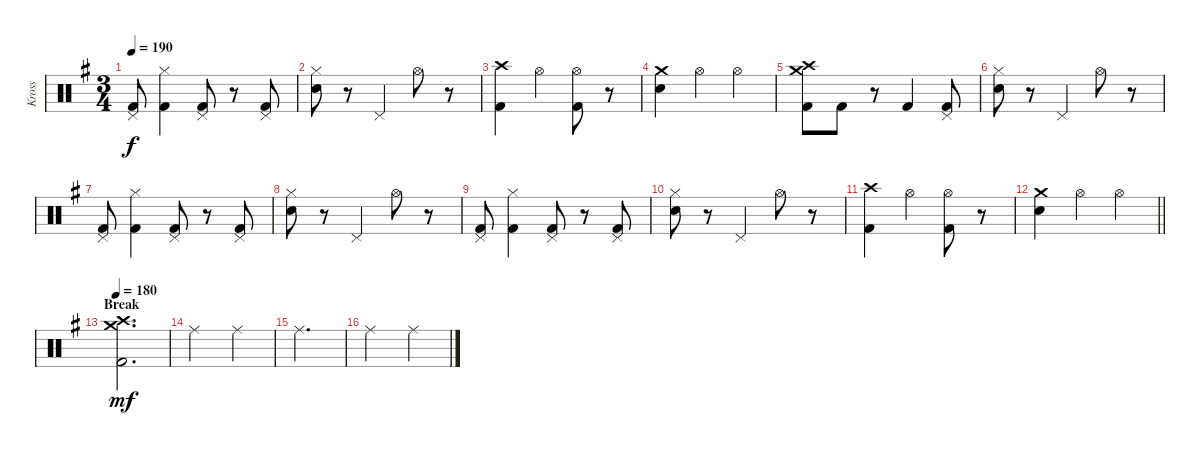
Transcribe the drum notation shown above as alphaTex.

\track ("Kross" "Kross") {instrument percussion}
\staff {score}
\articulation defaults
\ts (3 4)
\tempo 190
\clef neutral
\ks g
("Pedal Hi-Hat (hit)" "Kick (hit) 2").8{dy f} ("Hi-Hat (closed)" "Kick (hit) 2").4 ("Pedal Hi-Hat (hit)" "Kick (hit) 2").8 r.8 ("Pedal Hi-Hat (hit)" "Kick (hit) 2").8 |
("Hi-Hat (closed)" "Snare (hit) 2").8 r.8 "Pedal Hi-Hat (hit)".4 "Hi-Hat (open)".8 r.8 |
("Crash high (hit)" "Kick (hit) 2").4 "Hi-Hat (open)".4 ("Hi-Hat (open)" "Kick (hit) 2").8 r.8 |
("Crash medium (hit)" "Snare (hit) 2").4 "Hi-Hat (open)".4 "Hi-Hat (open)".4 |
("Crash medium (hit)" "Crash high (hit)" "Kick (hit) 2").8 "Kick (hit) 2".8 r.8 "Kick (hit) 2".4 ("Pedal Hi-Hat (hit)" "Kick (hit) 2").8 |
("Hi-Hat (closed)" "Snare (hit) 2").8 r.8 "Pedal Hi-Hat (hit)".4 "Hi-Hat (open)".8 r.8 |
("Pedal Hi-Hat (hit)" "Kick (hit) 2").8 ("Hi-Hat (closed)" "Kick (hit) 2").4 ("Pedal Hi-Hat (hit)" "Kick (hit) 2").8 r.8 ("Pedal Hi-Hat (hit)" "Kick (hit) 2").8 |
("Hi-Hat (closed)" "Snare (hit) 2").8 r.8 "Pedal Hi-Hat (hit)".4 "Hi-Hat (open)".8 r.8 |
("Pedal Hi-Hat (hit)" "Kick (hit) 2").8 ("Hi-Hat (closed)" "Kick (hit) 2").4 ("Pedal Hi-Hat (hit)" "Kick (hit) 2").8 r.8 ("Pedal Hi-Hat (hit)" "Kick (hit) 2").8 |
("Hi-Hat (closed)" "Snare (hit) 2").8 r.8 "Pedal Hi-Hat (hit)".4 "Hi-Hat (open)".8 r.8 |
("Crash high (hit)" "Kick (hit) 2").4 "Hi-Hat (open)".4 ("Hi-Hat (open)" "Kick (hit) 2").8 r.8 |
\barLineRight lightlight
("Crash medium (hit)" "Snare (hit) 2").4 "Hi-Hat (open)".4 "Hi-Hat (open)".4 |
\section ("" "Break")
\tempo 180
("Crash medium (hit)" "Crash high (hit)" "Kick (hit) 2").2{d dy mf} |
"Ride (middle)".2 "Ride (middle)".4 |
"Ride (middle)".2{d} |
"Ride (middle)".2 "Ride (middle)".4
